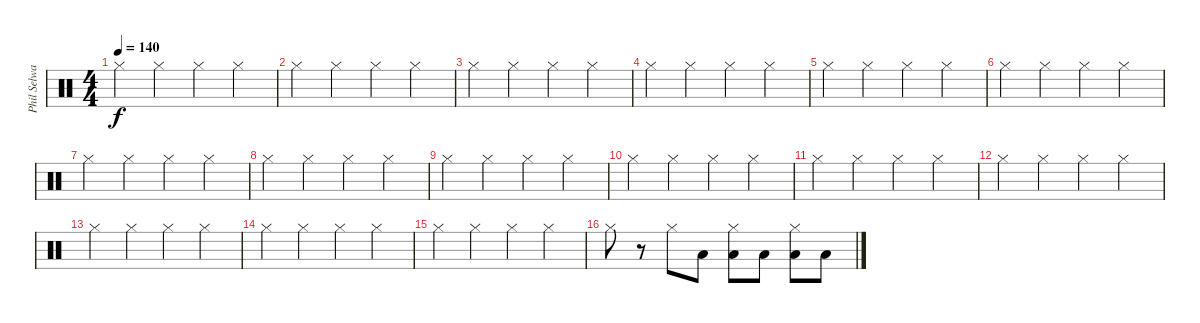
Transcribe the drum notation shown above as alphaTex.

\track ("Phil Selway" "Phil Selwa") {instrument percussion}
\staff {score}
\articulation defaults
\ts (4 4)
\tempo 140
\clef neutral
\ks c "Hi-Hat (closed)".4{dy f} "Hi-Hat (closed)".4 "Hi-Hat (closed)".4 "Hi-Hat (closed)".4
|
"Hi-Hat (closed)".4 "Hi-Hat (closed)".4 "Hi-Hat (closed)".4 "Hi-Hat (closed)".4 |
"Hi-Hat (closed)".4 "Hi-Hat (closed)".4 "Hi-Hat (closed)".4 "Hi-Hat (closed)".4 |
"Hi-Hat (closed)".4 "Hi-Hat (closed)".4 "Hi-Hat (closed)".4 "Hi-Hat (closed)".4 |
"Hi-Hat (closed)".4 "Hi-Hat (closed)".4 "Hi-Hat (closed)".4 "Hi-Hat (closed)".4 |
"Hi-Hat (closed)".4 "Hi-Hat (closed)".4 "Hi-Hat (closed)".4 "Hi-Hat (closed)".4 |
"Hi-Hat (closed)".4 "Hi-Hat (closed)".4 "Hi-Hat (closed)".4 "Hi-Hat (closed)".4 |
"Hi-Hat (closed)".4 "Hi-Hat (closed)".4 "Hi-Hat (closed)".4 "Hi-Hat (closed)".4 |
"Hi-Hat (closed)".4 "Hi-Hat (closed)".4 "Hi-Hat (closed)".4 "Hi-Hat (closed)".4 |
"Hi-Hat (closed)".4 "Hi-Hat (closed)".4 "Hi-Hat (closed)".4 "Hi-Hat (closed)".4 |
"Hi-Hat (closed)".4 "Hi-Hat (closed)".4 "Hi-Hat (closed)".4 "Hi-Hat (closed)".4 |
"Hi-Hat (closed)".4 "Hi-Hat (closed)".4 "Hi-Hat (closed)".4 "Hi-Hat (closed)".4 |
"Hi-Hat (closed)".4 "Hi-Hat (closed)".4 "Hi-Hat (closed)".4 "Hi-Hat (closed)".4 |
"Hi-Hat (closed)".4 "Hi-Hat (closed)".4 "Hi-Hat (closed)".4 "Hi-Hat (closed)".4 |
"Hi-Hat (closed)".4 "Hi-Hat (closed)".4 "Hi-Hat (closed)".4 "Hi-Hat (closed)".4 |
"Hi-Hat (closed)".8 r.8 "Hi-Hat (closed)".8 "Low Tom (hit)".8 ("Hi-Hat (closed)" "Low Tom (hit)").8 "Low Tom (hit)".8 ("Hi-Hat (closed)" "Low Tom (hit)").8 "Low Tom (hit)".8
